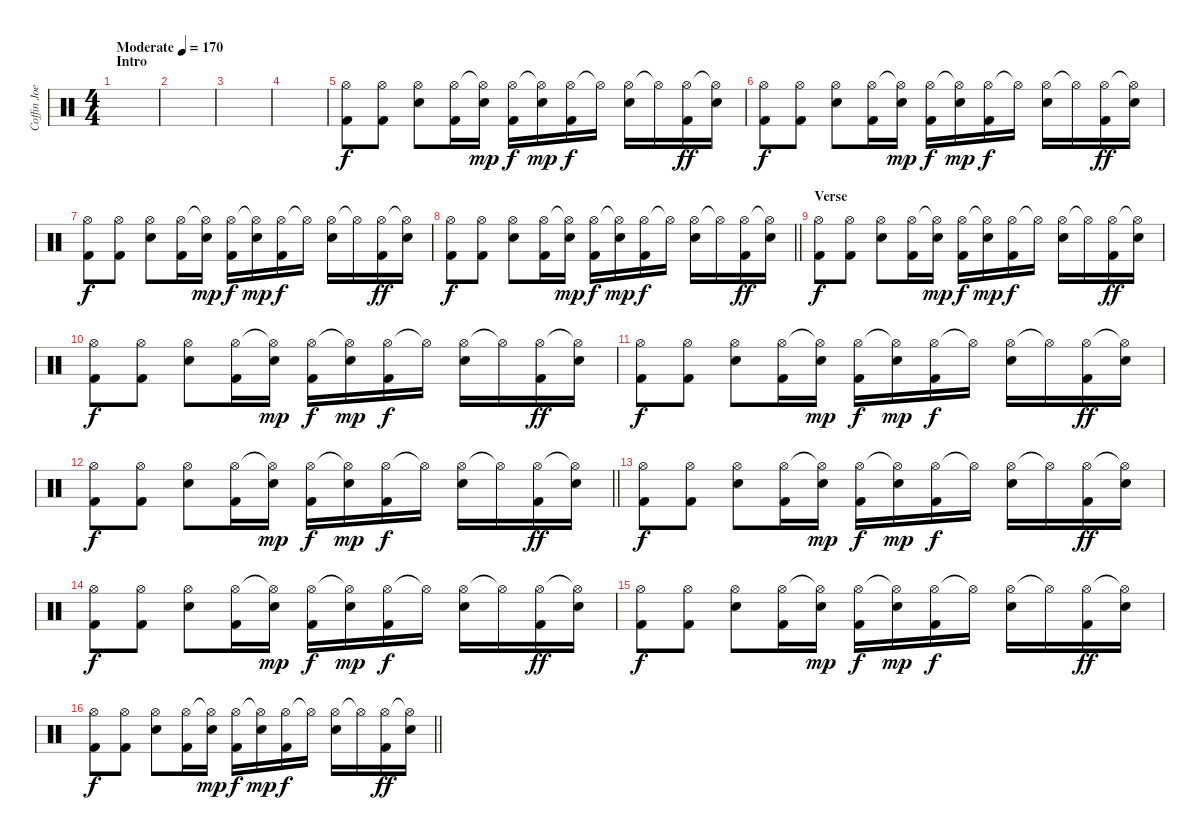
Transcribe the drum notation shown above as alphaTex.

\track ("Coffin Joe" "Coffin Joe") {instrument percussion}
\staff {score}
\articulation defaults
\ts (4 4)
\section ("" "Intro")
\tempo (170 "Moderate")
\clef neutral
\ks c
|
|
|
|
("Hi-Hat (open)" "Kick (hit) 2").8 ("Hi-Hat (open)" "Kick (hit) 2").8 ("Hi-Hat (open)" "Snare (hit) 2").8 ("Hi-Hat (open)" "Kick (hit) 2").16 ("Hi-Hat (open)"{t} "Snare (hit) 2").16{dy mp} ("Hi-Hat (open)" "Kick (hit) 2").16{dy f} ("Hi-Hat (open)"{t} "Snare (hit) 2").16{dy mp} ("Hi-Hat (open)" "Kick (hit) 2").16{dy f} "Hi-Hat (open)"{t}.16 ("Hi-Hat (open)" "Snare (hit) 2").16 "Hi-Hat (open)"{t}.16 ("Hi-Hat (open)" "Kick (hit) 2").16{dy ff} ("Hi-Hat (open)"{t} "Snare (hit) 2").16 |
("Hi-Hat (open)" "Kick (hit) 2").8{dy f} ("Hi-Hat (open)" "Kick (hit) 2").8 ("Hi-Hat (open)" "Snare (hit) 2").8 ("Hi-Hat (open)" "Kick (hit) 2").16 ("Hi-Hat (open)"{t} "Snare (hit) 2").16{dy mp} ("Hi-Hat (open)" "Kick (hit) 2").16{dy f} ("Hi-Hat (open)"{t} "Snare (hit) 2").16{dy mp} ("Hi-Hat (open)" "Kick (hit) 2").16{dy f} "Hi-Hat (open)"{t}.16 ("Hi-Hat (open)" "Snare (hit) 2").16 "Hi-Hat (open)"{t}.16 ("Hi-Hat (open)" "Kick (hit) 2").16{dy ff} ("Hi-Hat (open)"{t} "Snare (hit) 2").16 |
("Hi-Hat (open)" "Kick (hit) 2").8{dy f} ("Hi-Hat (open)" "Kick (hit) 2").8 ("Hi-Hat (open)" "Snare (hit) 2").8 ("Hi-Hat (open)" "Kick (hit) 2").16 ("Hi-Hat (open)"{t} "Snare (hit) 2").16{dy mp} ("Hi-Hat (open)" "Kick (hit) 2").16{dy f} ("Hi-Hat (open)"{t} "Snare (hit) 2").16{dy mp} ("Hi-Hat (open)" "Kick (hit) 2").16{dy f} "Hi-Hat (open)"{t}.16 ("Hi-Hat (open)" "Snare (hit) 2").16 "Hi-Hat (open)"{t}.16 ("Hi-Hat (open)" "Kick (hit) 2").16{dy ff} ("Hi-Hat (open)"{t} "Snare (hit) 2").16 |
\barLineRight lightlight
("Hi-Hat (open)" "Kick (hit) 2").8{dy f} ("Hi-Hat (open)" "Kick (hit) 2").8 ("Hi-Hat (open)" "Snare (hit) 2").8 ("Hi-Hat (open)" "Kick (hit) 2").16 ("Hi-Hat (open)"{t} "Snare (hit) 2").16{dy mp} ("Hi-Hat (open)" "Kick (hit) 2").16{dy f} ("Hi-Hat (open)"{t} "Snare (hit) 2").16{dy mp} ("Hi-Hat (open)" "Kick (hit) 2").16{dy f} "Hi-Hat (open)"{t}.16 ("Hi-Hat (open)" "Snare (hit) 2").16 "Hi-Hat (open)"{t}.16 ("Hi-Hat (open)" "Kick (hit) 2").16{dy ff} ("Hi-Hat (open)"{t} "Snare (hit) 2").16 |
\section ("" "Verse")
("Hi-Hat (open)" "Kick (hit) 2").8{dy f} ("Hi-Hat (open)" "Kick (hit) 2").8 ("Hi-Hat (open)" "Snare (hit) 2").8 ("Hi-Hat (open)" "Kick (hit) 2").16 ("Hi-Hat (open)"{t} "Snare (hit) 2").16{dy mp} ("Hi-Hat (open)" "Kick (hit) 2").16{dy f} ("Hi-Hat (open)"{t} "Snare (hit) 2").16{dy mp} ("Hi-Hat (open)" "Kick (hit) 2").16{dy f} "Hi-Hat (open)"{t}.16 ("Hi-Hat (open)" "Snare (hit) 2").16 "Hi-Hat (open)"{t}.16 ("Hi-Hat (open)" "Kick (hit) 2").16{dy ff} ("Hi-Hat (open)"{t} "Snare (hit) 2").16 |
("Hi-Hat (open)" "Kick (hit) 2").8{dy f} ("Hi-Hat (open)" "Kick (hit) 2").8 ("Hi-Hat (open)" "Snare (hit) 2").8 ("Hi-Hat (open)" "Kick (hit) 2").16 ("Hi-Hat (open)"{t} "Snare (hit) 2").16{dy mp} ("Hi-Hat (open)" "Kick (hit) 2").16{dy f} ("Hi-Hat (open)"{t} "Snare (hit) 2").16{dy mp} ("Hi-Hat (open)" "Kick (hit) 2").16{dy f} "Hi-Hat (open)"{t}.16 ("Hi-Hat (open)" "Snare (hit) 2").16 "Hi-Hat (open)"{t}.16 ("Hi-Hat (open)" "Kick (hit) 2").16{dy ff} ("Hi-Hat (open)"{t} "Snare (hit) 2").16 |
("Hi-Hat (open)" "Kick (hit) 2").8{dy f} ("Hi-Hat (open)" "Kick (hit) 2").8 ("Hi-Hat (open)" "Snare (hit) 2").8 ("Hi-Hat (open)" "Kick (hit) 2").16 ("Hi-Hat (open)"{t} "Snare (hit) 2").16{dy mp} ("Hi-Hat (open)" "Kick (hit) 2").16{dy f} ("Hi-Hat (open)"{t} "Snare (hit) 2").16{dy mp} ("Hi-Hat (open)" "Kick (hit) 2").16{dy f} "Hi-Hat (open)"{t}.16 ("Hi-Hat (open)" "Snare (hit) 2").16 "Hi-Hat (open)"{t}.16 ("Hi-Hat (open)" "Kick (hit) 2").16{dy ff} ("Hi-Hat (open)"{t} "Snare (hit) 2").16 |
\barLineRight lightlight
("Hi-Hat (open)" "Kick (hit) 2").8{dy f} ("Hi-Hat (open)" "Kick (hit) 2").8 ("Hi-Hat (open)" "Snare (hit) 2").8 ("Hi-Hat (open)" "Kick (hit) 2").16 ("Hi-Hat (open)"{t} "Snare (hit) 2").16{dy mp} ("Hi-Hat (open)" "Kick (hit) 2").16{dy f} ("Hi-Hat (open)"{t} "Snare (hit) 2").16{dy mp} ("Hi-Hat (open)" "Kick (hit) 2").16{dy f} "Hi-Hat (open)"{t}.16 ("Hi-Hat (open)" "Snare (hit) 2").16 "Hi-Hat (open)"{t}.16 ("Hi-Hat (open)" "Kick (hit) 2").16{dy ff} ("Hi-Hat (open)"{t} "Snare (hit) 2").16 |
("Hi-Hat (open)" "Kick (hit) 2").8{dy f} ("Hi-Hat (open)" "Kick (hit) 2").8 ("Hi-Hat (open)" "Snare (hit) 2").8 ("Hi-Hat (open)" "Kick (hit) 2").16 ("Hi-Hat (open)"{t} "Snare (hit) 2").16{dy mp} ("Hi-Hat (open)" "Kick (hit) 2").16{dy f} ("Hi-Hat (open)"{t} "Snare (hit) 2").16{dy mp} ("Hi-Hat (open)" "Kick (hit) 2").16{dy f} "Hi-Hat (open)"{t}.16 ("Hi-Hat (open)" "Snare (hit) 2").16 "Hi-Hat (open)"{t}.16 ("Hi-Hat (open)" "Kick (hit) 2").16{dy ff} ("Hi-Hat (open)"{t} "Snare (hit) 2").16 |
("Hi-Hat (open)" "Kick (hit) 2").8{dy f} ("Hi-Hat (open)" "Kick (hit) 2").8 ("Hi-Hat (open)" "Snare (hit) 2").8 ("Hi-Hat (open)" "Kick (hit) 2").16 ("Hi-Hat (open)"{t} "Snare (hit) 2").16{dy mp} ("Hi-Hat (open)" "Kick (hit) 2").16{dy f} ("Hi-Hat (open)"{t} "Snare (hit) 2").16{dy mp} ("Hi-Hat (open)" "Kick (hit) 2").16{dy f} "Hi-Hat (open)"{t}.16 ("Hi-Hat (open)" "Snare (hit) 2").16 "Hi-Hat (open)"{t}.16 ("Hi-Hat (open)" "Kick (hit) 2").16{dy ff} ("Hi-Hat (open)"{t} "Snare (hit) 2").16 |
("Hi-Hat (open)" "Kick (hit) 2").8{dy f} ("Hi-Hat (open)" "Kick (hit) 2").8 ("Hi-Hat (open)" "Snare (hit) 2").8 ("Hi-Hat (open)" "Kick (hit) 2").16 ("Hi-Hat (open)"{t} "Snare (hit) 2").16{dy mp} ("Hi-Hat (open)" "Kick (hit) 2").16{dy f} ("Hi-Hat (open)"{t} "Snare (hit) 2").16{dy mp} ("Hi-Hat (open)" "Kick (hit) 2").16{dy f} "Hi-Hat (open)"{t}.16 ("Hi-Hat (open)" "Snare (hit) 2").16 "Hi-Hat (open)"{t}.16 ("Hi-Hat (open)" "Kick (hit) 2").16{dy ff} ("Hi-Hat (open)"{t} "Snare (hit) 2").16 |
\barLineRight lightlight
("Hi-Hat (open)" "Kick (hit) 2").8{dy f} ("Hi-Hat (open)" "Kick (hit) 2").8 ("Hi-Hat (open)" "Snare (hit) 2").8 ("Hi-Hat (open)" "Kick (hit) 2").16 ("Hi-Hat (open)"{t} "Snare (hit) 2").16{dy mp} ("Hi-Hat (open)" "Kick (hit) 2").16{dy f} ("Hi-Hat (open)"{t} "Snare (hit) 2").16{dy mp} ("Hi-Hat (open)" "Kick (hit) 2").16{dy f} "Hi-Hat (open)"{t}.16 ("Hi-Hat (open)" "Snare (hit) 2").16 "Hi-Hat (open)"{t}.16 ("Hi-Hat (open)" "Kick (hit) 2").16{dy ff} ("Hi-Hat (open)"{t} "Snare (hit) 2").16
